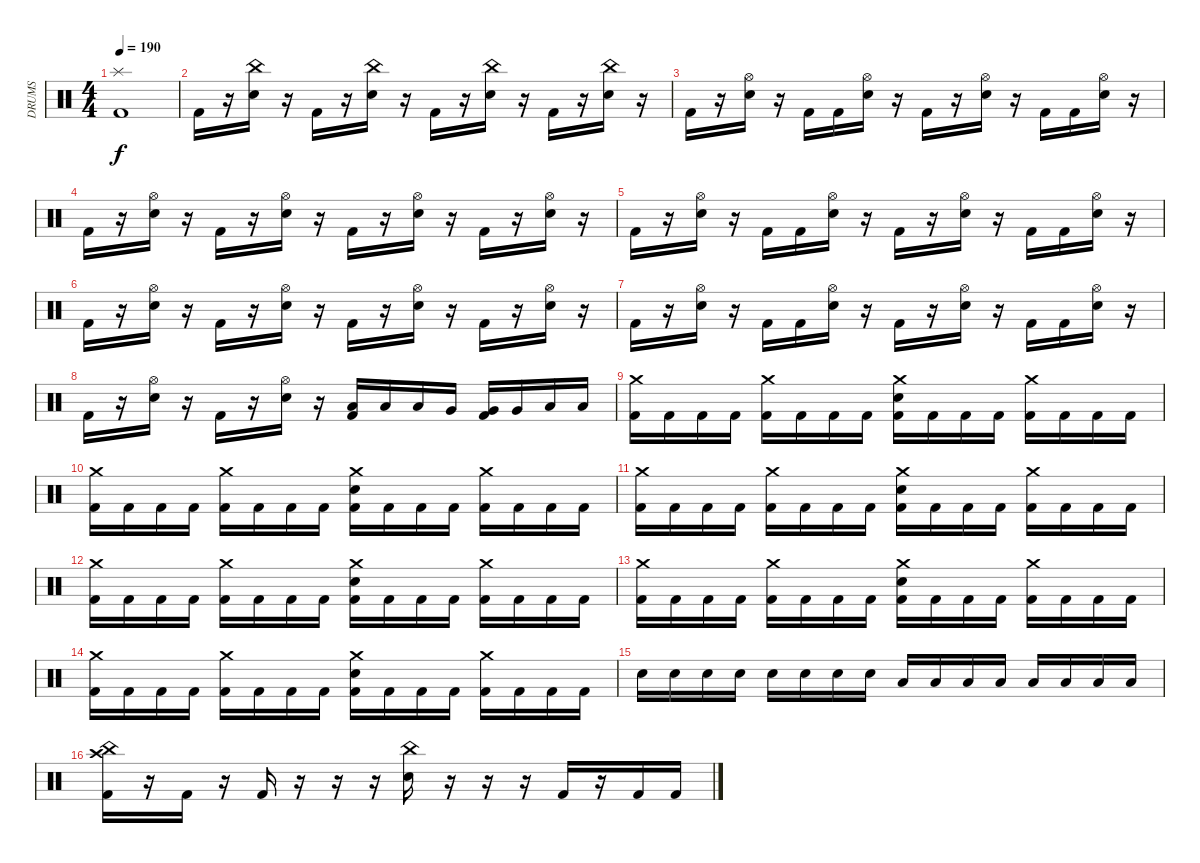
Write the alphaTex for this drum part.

\track ("DRUMS" "DRUMS") {instrument percussion}
\staff {score}
\articulation defaults
\ts (4 4)
\tempo 190
\clef neutral
\ks c
("Splash (hit)" "Kick (hit) 2").1{dy f} |
"Kick (hit) 2".16 r.16 ("China (hit)" "Electric Snare (hit)").16 r.16 "Kick (hit) 2".16 r.16 ("China (hit)" "Electric Snare (hit)").16 r.16 "Kick (hit) 2".16 r.16 ("China (hit)" "Electric Snare (hit)").16 r.16 "Kick (hit) 2".16 r.16 ("China (hit)" "Electric Snare (hit)").16 r.16 |
"Kick (hit) 2".16 r.16 ("Hi-Hat (open)" "Electric Snare (hit)").16 r.16 "Kick (hit) 2".16 "Kick (hit) 2".16 ("Hi-Hat (open)" "Electric Snare (hit)").16 r.16 "Kick (hit) 2".16 r.16 ("Hi-Hat (open)" "Electric Snare (hit)").16 r.16 "Kick (hit) 2".16 "Kick (hit) 2".16 ("Hi-Hat (open)" "Electric Snare (hit)").16 r.16 |
"Kick (hit) 2".16 r.16 ("Hi-Hat (open)" "Electric Snare (hit)").16 r.16 "Kick (hit) 2".16 r.16 ("Hi-Hat (open)" "Electric Snare (hit)").16 r.16 "Kick (hit) 2".16 r.16 ("Hi-Hat (open)" "Electric Snare (hit)").16 r.16 "Kick (hit) 2".16 r.16 ("Hi-Hat (open)" "Electric Snare (hit)").16 r.16 |
"Kick (hit) 2".16 r.16 ("Hi-Hat (open)" "Electric Snare (hit)").16 r.16 "Kick (hit) 2".16 "Kick (hit) 2".16 ("Hi-Hat (open)" "Electric Snare (hit)").16 r.16 "Kick (hit) 2".16 r.16 ("Hi-Hat (open)" "Electric Snare (hit)").16 r.16 "Kick (hit) 2".16 "Kick (hit) 2".16 ("Hi-Hat (open)" "Electric Snare (hit)").16 r.16 |
"Kick (hit) 2".16 r.16 ("Hi-Hat (open)" "Electric Snare (hit)").16 r.16 "Kick (hit) 2".16 r.16 ("Hi-Hat (open)" "Electric Snare (hit)").16 r.16 "Kick (hit) 2".16 r.16 ("Hi-Hat (open)" "Electric Snare (hit)").16 r.16 "Kick (hit) 2".16 r.16 ("Hi-Hat (open)" "Electric Snare (hit)").16 r.16 |
"Kick (hit) 2".16 r.16 ("Hi-Hat (open)" "Electric Snare (hit)").16 r.16 "Kick (hit) 2".16 "Kick (hit) 2".16 ("Hi-Hat (open)" "Electric Snare (hit)").16 r.16 "Kick (hit) 2".16 r.16 ("Hi-Hat (open)" "Electric Snare (hit)").16 r.16 "Kick (hit) 2".16 "Kick (hit) 2".16 ("Hi-Hat (open)" "Electric Snare (hit)").16 r.16 |
"Kick (hit) 2".16 r.16 ("Hi-Hat (open)" "Electric Snare (hit)").16 r.16 "Kick (hit) 2".16 r.16 ("Hi-Hat (open)" "Electric Snare (hit)").16 r.16 ("Low Tom (hit)" "Kick (hit) 2").16 "Low Tom (hit)".16 "Low Tom (hit)".16 "Very Low Tom (hit)".16 ("Very Low Tom (hit)" "Kick (hit) 2").16 "Very Low Tom (hit)".16 "Low Floor Tom (hit)".16 "Low Floor Tom (hit)".16 |
("Crash medium (hit)" "Kick (hit) 2").16 "Kick (hit) 2".16 "Kick (hit) 2".16 "Kick (hit) 2".16 ("Crash medium (hit)" "Kick (hit) 2").16 "Kick (hit) 2".16 "Kick (hit) 2".16 "Kick (hit) 2".16 ("Crash medium (hit)" "Electric Snare (hit)" "Kick (hit) 2").16 "Kick (hit) 2".16 "Kick (hit) 2".16 "Kick (hit) 2".16 ("Crash medium (hit)" "Kick (hit) 2").16 "Kick (hit) 2".16 "Kick (hit) 2".16 "Kick (hit) 2".16 |
("Crash medium (hit)" "Kick (hit) 2").16 "Kick (hit) 2".16 "Kick (hit) 2".16 "Kick (hit) 2".16 ("Crash medium (hit)" "Kick (hit) 2").16 "Kick (hit) 2".16 "Kick (hit) 2".16 "Kick (hit) 2".16 ("Crash medium (hit)" "Electric Snare (hit)" "Kick (hit) 2").16 "Kick (hit) 2".16 "Kick (hit) 2".16 "Kick (hit) 2".16 ("Crash medium (hit)" "Kick (hit) 2").16 "Kick (hit) 2".16 "Kick (hit) 2".16 "Kick (hit) 2".16 |
("Crash medium (hit)" "Kick (hit) 2").16 "Kick (hit) 2".16 "Kick (hit) 2".16 "Kick (hit) 2".16 ("Crash medium (hit)" "Kick (hit) 2").16 "Kick (hit) 2".16 "Kick (hit) 2".16 "Kick (hit) 2".16 ("Crash medium (hit)" "Electric Snare (hit)" "Kick (hit) 2").16 "Kick (hit) 2".16 "Kick (hit) 2".16 "Kick (hit) 2".16 ("Crash medium (hit)" "Kick (hit) 2").16 "Kick (hit) 2".16 "Kick (hit) 2".16 "Kick (hit) 2".16 |
("Crash medium (hit)" "Kick (hit) 2").16 "Kick (hit) 2".16 "Kick (hit) 2".16 "Kick (hit) 2".16 ("Crash medium (hit)" "Kick (hit) 2").16 "Kick (hit) 2".16 "Kick (hit) 2".16 "Kick (hit) 2".16 ("Crash medium (hit)" "Electric Snare (hit)" "Kick (hit) 2").16 "Kick (hit) 2".16 "Kick (hit) 2".16 "Kick (hit) 2".16 ("Crash medium (hit)" "Kick (hit) 2").16 "Kick (hit) 2".16 "Kick (hit) 2".16 "Kick (hit) 2".16 |
("Crash medium (hit)" "Kick (hit) 2").16 "Kick (hit) 2".16 "Kick (hit) 2".16 "Kick (hit) 2".16 ("Crash medium (hit)" "Kick (hit) 2").16 "Kick (hit) 2".16 "Kick (hit) 2".16 "Kick (hit) 2".16 ("Crash medium (hit)" "Electric Snare (hit)" "Kick (hit) 2").16 "Kick (hit) 2".16 "Kick (hit) 2".16 "Kick (hit) 2".16 ("Crash medium (hit)" "Kick (hit) 2").16 "Kick (hit) 2".16 "Kick (hit) 2".16 "Kick (hit) 2".16 |
("Crash medium (hit)" "Kick (hit) 2").16 "Kick (hit) 2".16 "Kick (hit) 2".16 "Kick (hit) 2".16 ("Crash medium (hit)" "Kick (hit) 2").16 "Kick (hit) 2".16 "Kick (hit) 2".16 "Kick (hit) 2".16 ("Crash medium (hit)" "Electric Snare (hit)" "Kick (hit) 2").16 "Kick (hit) 2".16 "Kick (hit) 2".16 "Kick (hit) 2".16 ("Crash medium (hit)" "Kick (hit) 2").16 "Kick (hit) 2".16 "Kick (hit) 2".16 "Kick (hit) 2".16 |
"Electric Snare (hit)".16 "Electric Snare (hit)".16 "Electric Snare (hit)".16 "Electric Snare (hit)".16 "Electric Snare (hit)".16 "Electric Snare (hit)".16 "Electric Snare (hit)".16 "Electric Snare (hit)".16 "Low Floor Tom (hit)".16 "Low Floor Tom (hit)".16 "Low Floor Tom (hit)".16 "Low Floor Tom (hit)".16 "Low Floor Tom (hit)".16 "Low Floor Tom (hit)".16 "Low Floor Tom (hit)".16 "Low Floor Tom (hit)".16 |
("China (hit)" "Crash high (hit)" "Kick (hit) 2").16 r.16 "Kick (hit) 2".16 r.16 "Kick (hit) 2".16 r.16 r.16 r.16 ("China (hit)" "Electric Snare (hit)").16 r.16 r.16 r.16 "Kick (hit) 2".16 r.16 "Kick (hit) 2".16 "Kick (hit) 2".16
